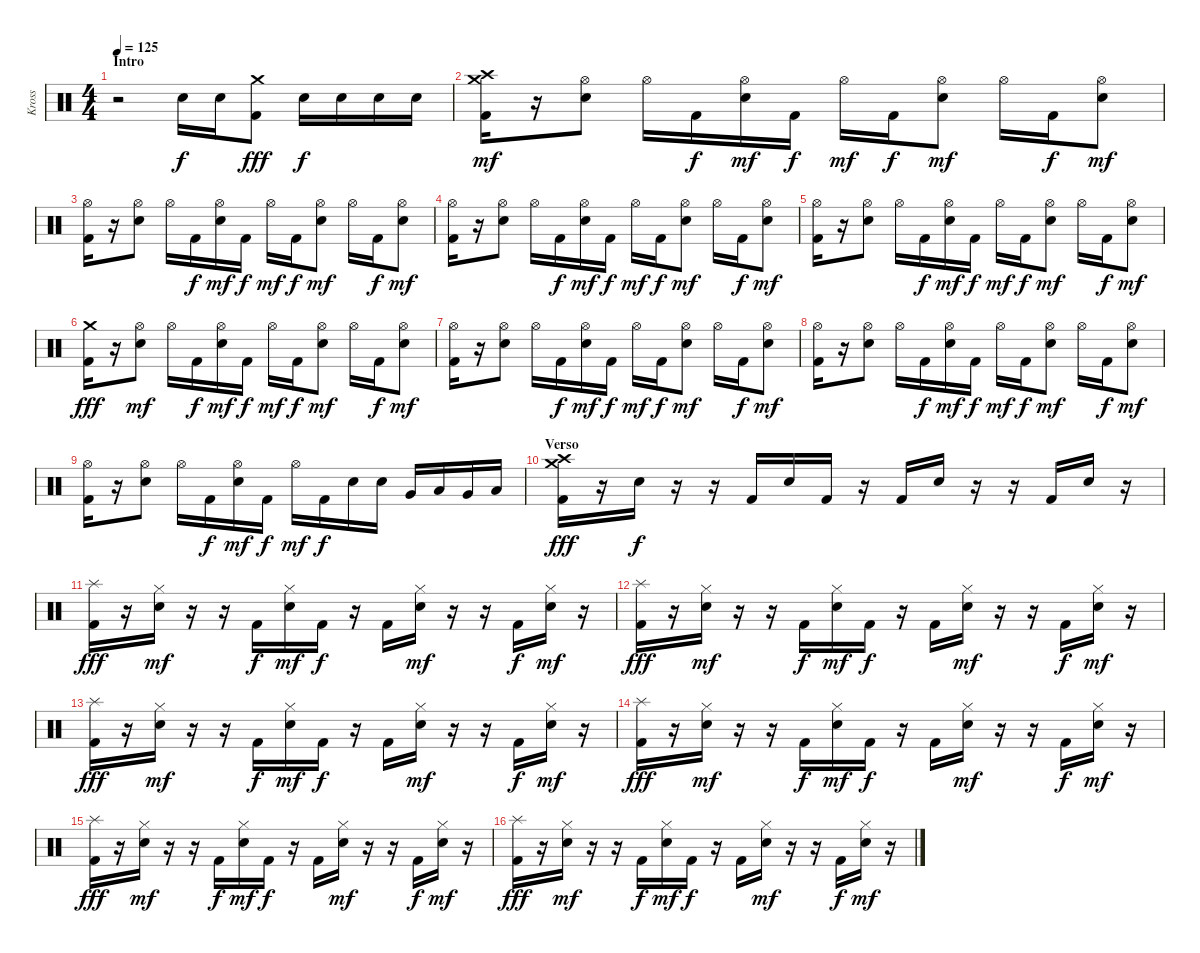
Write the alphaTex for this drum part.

\track ("Kross" "Kross") {instrument percussion}
\staff {score}
\articulation defaults
\ts (4 4)
\section ("" "Intro")
\tempo 125
\clef neutral
\ks c
r.2{dy f} "Electric Snare (hit)".16 "Electric Snare (hit)".16 ("Crash medium (hit)" "Kick (hit) 2").8{dy fff} "Electric Snare (hit)".16{dy f} "Electric Snare (hit)".16 "Electric Snare (hit)".16 "Electric Snare (hit)".16 |
("Crash medium (hit)" "Crash high (hit)" "Kick (hit) 2").16{dy mf} r.16 ("Hi-Hat (open)" "Electric Snare (hit)").8 "Hi-Hat (open)".16 "Kick (hit) 2".16{dy f} ("Hi-Hat (open)" "Electric Snare (hit)").16{dy mf} "Kick (hit) 2".16{dy f} "Hi-Hat (open)".16{dy mf} "Kick (hit) 2".16{dy f} ("Hi-Hat (open)" "Electric Snare (hit)").8{dy mf} "Hi-Hat (open)".16 "Kick (hit) 2".16{dy f} ("Hi-Hat (open)" "Electric Snare (hit)").8{dy mf} |
("Hi-Hat (open)" "Kick (hit) 2").16 r.16 ("Hi-Hat (open)" "Electric Snare (hit)").8 "Hi-Hat (open)".16 "Kick (hit) 2".16{dy f} ("Hi-Hat (open)" "Electric Snare (hit)").16{dy mf} "Kick (hit) 2".16{dy f} "Hi-Hat (open)".16{dy mf} "Kick (hit) 2".16{dy f} ("Hi-Hat (open)" "Electric Snare (hit)").8{dy mf} "Hi-Hat (open)".16 "Kick (hit) 2".16{dy f} ("Hi-Hat (open)" "Electric Snare (hit)").8{dy mf} |
("Hi-Hat (open)" "Kick (hit) 2").16 r.16 ("Hi-Hat (open)" "Electric Snare (hit)").8 "Hi-Hat (open)".16 "Kick (hit) 2".16{dy f} ("Hi-Hat (open)" "Electric Snare (hit)").16{dy mf} "Kick (hit) 2".16{dy f} "Hi-Hat (open)".16{dy mf} "Kick (hit) 2".16{dy f} ("Hi-Hat (open)" "Electric Snare (hit)").8{dy mf} "Hi-Hat (open)".16 "Kick (hit) 2".16{dy f} ("Hi-Hat (open)" "Electric Snare (hit)").8{dy mf} |
("Hi-Hat (open)" "Kick (hit) 2").16 r.16 ("Hi-Hat (open)" "Electric Snare (hit)").8 "Hi-Hat (open)".16 "Kick (hit) 2".16{dy f} ("Hi-Hat (open)" "Electric Snare (hit)").16{dy mf} "Kick (hit) 2".16{dy f} "Hi-Hat (open)".16{dy mf} "Kick (hit) 2".16{dy f} ("Hi-Hat (open)" "Electric Snare (hit)").8{dy mf} "Hi-Hat (open)".16 "Kick (hit) 2".16{dy f} ("Hi-Hat (open)" "Electric Snare (hit)").8{dy mf} |
("Crash medium (hit)" "Kick (hit) 2").16{dy fff} r.16 ("Hi-Hat (open)" "Electric Snare (hit)").8{dy mf} "Hi-Hat (open)".16 "Kick (hit) 2".16{dy f} ("Hi-Hat (open)" "Electric Snare (hit)").16{dy mf} "Kick (hit) 2".16{dy f} "Hi-Hat (open)".16{dy mf} "Kick (hit) 2".16{dy f} ("Hi-Hat (open)" "Electric Snare (hit)").8{dy mf} "Hi-Hat (open)".16 "Kick (hit) 2".16{dy f} ("Hi-Hat (open)" "Electric Snare (hit)").8{dy mf} |
("Hi-Hat (open)" "Kick (hit) 2").16 r.16 ("Hi-Hat (open)" "Electric Snare (hit)").8 "Hi-Hat (open)".16 "Kick (hit) 2".16{dy f} ("Hi-Hat (open)" "Electric Snare (hit)").16{dy mf} "Kick (hit) 2".16{dy f} "Hi-Hat (open)".16{dy mf} "Kick (hit) 2".16{dy f} ("Hi-Hat (open)" "Electric Snare (hit)").8{dy mf} "Hi-Hat (open)".16 "Kick (hit) 2".16{dy f} ("Hi-Hat (open)" "Electric Snare (hit)").8{dy mf} |
("Hi-Hat (open)" "Kick (hit) 2").16 r.16 ("Hi-Hat (open)" "Electric Snare (hit)").8 "Hi-Hat (open)".16 "Kick (hit) 2".16{dy f} ("Hi-Hat (open)" "Electric Snare (hit)").16{dy mf} "Kick (hit) 2".16{dy f} "Hi-Hat (open)".16{dy mf} "Kick (hit) 2".16{dy f} ("Hi-Hat (open)" "Electric Snare (hit)").8{dy mf} "Hi-Hat (open)".16 "Kick (hit) 2".16{dy f} ("Hi-Hat (open)" "Electric Snare (hit)").8{dy mf} |
("Hi-Hat (open)" "Kick (hit) 2").16 r.16 ("Hi-Hat (open)" "Electric Snare (hit)").8 "Hi-Hat (open)".16 "Kick (hit) 2".16{dy f} ("Hi-Hat (open)" "Electric Snare (hit)").16{dy mf} "Kick (hit) 2".16{dy f} "Hi-Hat (open)".16{dy mf} "Kick (hit) 2".16{dy f} "Electric Snare (hit)".16 "Electric Snare (hit)".16 "Very Low Tom (hit)".16 "Low Tom (hit)".16 "Very Low Tom (hit)".16 "Low Tom (hit)".16 |
\section ("" "Verso")
("Crash high (hit)" "Crash medium (hit)" "Kick (hit) 2").16{dy fff} r.16 "Electric Snare (hit)".16{dy f} r.16 r.16 "Kick (hit) 2".16 "Electric Snare (hit)".16 "Kick (hit) 2".16 r.16 "Kick (hit) 2".16 "Electric Snare (hit)".16 r.16 r.16 "Kick (hit) 2".16 "Electric Snare (hit)".16 r.16 |
("Splash (hit)" "Kick (hit) 2").16{dy fff} r.16 ("Hi-Hat (closed)" "Electric Snare (hit)").16{dy mf} r.16 r.16 "Kick (hit) 2".16{dy f} ("Hi-Hat (closed)" "Electric Snare (hit)").16{dy mf} "Kick (hit) 2".16{dy f} r.16 "Kick (hit) 2".16 ("Hi-Hat (closed)" "Electric Snare (hit)").16{dy mf} r.16 r.16 "Kick (hit) 2".16{dy f} ("Hi-Hat (closed)" "Electric Snare (hit)").16{dy mf} r.16 |
("Splash (hit)" "Kick (hit) 2").16{dy fff} r.16 ("Hi-Hat (closed)" "Electric Snare (hit)").16{dy mf} r.16 r.16 "Kick (hit) 2".16{dy f} ("Hi-Hat (closed)" "Electric Snare (hit)").16{dy mf} "Kick (hit) 2".16{dy f} r.16 "Kick (hit) 2".16 ("Hi-Hat (closed)" "Electric Snare (hit)").16{dy mf} r.16 r.16 "Kick (hit) 2".16{dy f} ("Hi-Hat (closed)" "Electric Snare (hit)").16{dy mf} r.16 |
("Splash (hit)" "Kick (hit) 2").16{dy fff} r.16 ("Hi-Hat (closed)" "Electric Snare (hit)").16{dy mf} r.16 r.16 "Kick (hit) 2".16{dy f} ("Hi-Hat (closed)" "Electric Snare (hit)").16{dy mf} "Kick (hit) 2".16{dy f} r.16 "Kick (hit) 2".16 ("Hi-Hat (closed)" "Electric Snare (hit)").16{dy mf} r.16 r.16 "Kick (hit) 2".16{dy f} ("Hi-Hat (closed)" "Electric Snare (hit)").16{dy mf} r.16 |
("Splash (hit)" "Kick (hit) 2").16{dy fff} r.16 ("Hi-Hat (closed)" "Electric Snare (hit)").16{dy mf} r.16 r.16 "Kick (hit) 2".16{dy f} ("Hi-Hat (closed)" "Electric Snare (hit)").16{dy mf} "Kick (hit) 2".16{dy f} r.16 "Kick (hit) 2".16 ("Hi-Hat (closed)" "Electric Snare (hit)").16{dy mf} r.16 r.16 "Kick (hit) 2".16{dy f} ("Hi-Hat (closed)" "Electric Snare (hit)").16{dy mf} r.16 |
("Splash (hit)" "Kick (hit) 2").16{dy fff} r.16 ("Hi-Hat (closed)" "Electric Snare (hit)").16{dy mf} r.16 r.16 "Kick (hit) 2".16{dy f} ("Hi-Hat (closed)" "Electric Snare (hit)").16{dy mf} "Kick (hit) 2".16{dy f} r.16 "Kick (hit) 2".16 ("Hi-Hat (closed)" "Electric Snare (hit)").16{dy mf} r.16 r.16 "Kick (hit) 2".16{dy f} ("Hi-Hat (closed)" "Electric Snare (hit)").16{dy mf} r.16 |
("Splash (hit)" "Kick (hit) 2").16{dy fff} r.16 ("Hi-Hat (closed)" "Electric Snare (hit)").16{dy mf} r.16 r.16 "Kick (hit) 2".16{dy f} ("Hi-Hat (closed)" "Electric Snare (hit)").16{dy mf} "Kick (hit) 2".16{dy f} r.16 "Kick (hit) 2".16 ("Hi-Hat (closed)" "Electric Snare (hit)").16{dy mf} r.16 r.16 "Kick (hit) 2".16{dy f} ("Hi-Hat (closed)" "Electric Snare (hit)").16{dy mf} r.16
